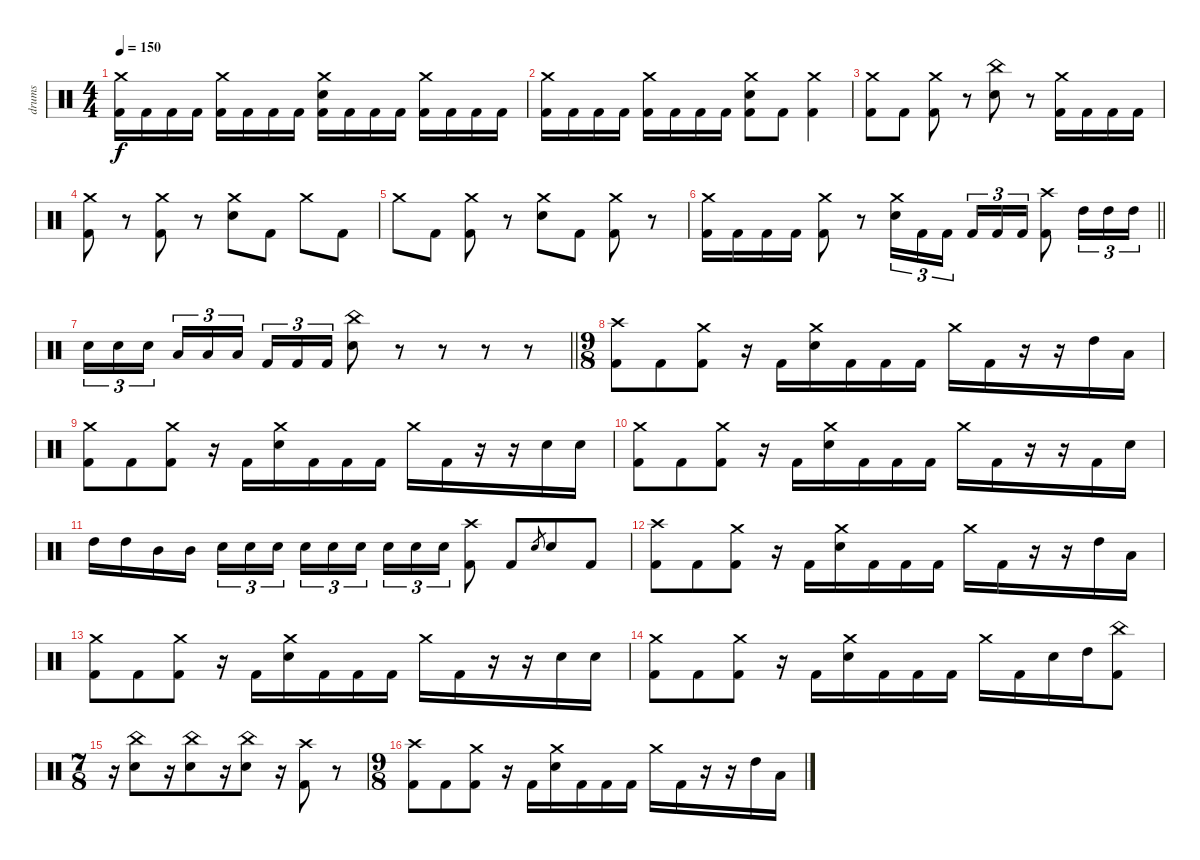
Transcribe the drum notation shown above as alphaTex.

\track ("drums" "drums") {instrument percussion}
\staff {score}
\articulation defaults
\ts (4 4)
\tempo 150
\clef neutral
\ks c
("Crash medium (hit)" "Kick (hit) 2").16{dy f} "Kick (hit) 2".16 "Kick (hit) 2".16 "Kick (hit) 2".16 ("Crash medium (hit)" "Kick (hit) 2").16 "Kick (hit) 2".16 "Kick (hit) 2".16 "Kick (hit) 2".16 ("Crash medium (hit)" "Electric Snare (hit)" "Kick (hit) 2").16 "Kick (hit) 2".16 "Kick (hit) 2".16 "Kick (hit) 2".16 ("Crash medium (hit)" "Kick (hit) 2").16 "Kick (hit) 2".16 "Kick (hit) 2".16 "Kick (hit) 2".16 |
("Crash medium (hit)" "Kick (hit) 2").16 "Kick (hit) 2".16 "Kick (hit) 2".16 "Kick (hit) 2".16 ("Crash medium (hit)" "Kick (hit) 2").16 "Kick (hit) 2".16 "Kick (hit) 2".16 "Kick (hit) 2".16 ("Crash medium (hit)" "Electric Snare (hit)" "Kick (hit) 2").8 "Kick (hit) 2".8 ("Crash medium (hit)" "Kick (hit) 2").4 |
("Crash medium (hit)" "Kick (hit) 2").8 "Kick (hit) 2".8 ("Crash medium (hit)" "Kick (hit) 2").8 r.8 ("China (hit)" "Electric Snare (hit)").8 r.8 ("Crash medium (hit)" "Kick (hit) 2").16 "Kick (hit) 2".16 "Kick (hit) 2".16 "Kick (hit) 2".16 |
("Crash medium (hit)" "Kick (hit) 2").8 r.8 ("Crash medium (hit)" "Kick (hit) 2").8 r.8 ("Crash medium (hit)" "Electric Snare (hit)").8 "Kick (hit) 2".8 "Crash medium (hit)".8 "Kick (hit) 2".8 |
"Crash medium (hit)".8 "Kick (hit) 2".8 ("Crash medium (hit)" "Kick (hit) 2").8 r.8 ("Crash medium (hit)" "Electric Snare (hit)").8 "Kick (hit) 2".8 ("Crash medium (hit)" "Kick (hit) 2").8 r.8 |
\barLineRight lightlight
("Crash medium (hit)" "Kick (hit) 2").16 "Kick (hit) 2".16 "Kick (hit) 2".16 "Kick (hit) 2".16 ("Crash medium (hit)" "Kick (hit) 2").8 r.8 ("Crash medium (hit)" "Electric Snare (hit)").16{tu (3 2)} "Kick (hit) 2".16{tu (3 2)} "Kick (hit) 2".16{tu (3 2)} "Kick (hit) 2".16{tu (3 2)} "Kick (hit) 2".16{tu (3 2)} "Kick (hit) 2".16{tu (3 2)} ("Crash high (hit)" "Kick (hit) 2").8 "High Tom (hit)".16{tu (3 2)} "High Tom (hit)".16{tu (3 2)} "High Tom (hit)".16{tu (3 2)} |
\barLineRight lightlight "Electric Snare (hit)".16{tu (3 2)} "Electric Snare (hit)".16{tu (3 2)} "Electric Snare (hit)".16{tu (3 2)} "Low Tom (hit)".16{tu (3 2)} "Low Tom (hit)".16{tu (3 2)} "Low Tom (hit)".16{tu (3 2)} "Kick (hit) 2".16{tu (3 2)} "Kick (hit) 2".16{tu (3 2)} "Kick (hit) 2".16{tu (3 2)}
("China (hit)" "Electric Snare (hit)").8 r.8 r.8 r.8 r.8 |
\ts (9 8)
\section ("" "")
("Crash high (hit)" "Kick (hit) 2").8 "Kick (hit) 2".8 ("Crash medium (hit)" "Kick (hit) 2").8 r.16 "Kick (hit) 2".16 ("Crash medium (hit)" "Electric Snare (hit)").16 "Kick (hit) 2".16 "Kick (hit) 2".16 "Kick (hit) 2".16 "Crash medium (hit)".16 "Kick (hit) 2".16 r.16 r.16 "High Tom (hit)".16 "Low Tom (hit)".16 |
("Crash medium (hit)" "Kick (hit) 2").8 "Kick (hit) 2".8 ("Crash medium (hit)" "Kick (hit) 2").8 r.16 "Kick (hit) 2".16 ("Crash medium (hit)" "Electric Snare (hit)").16 "Kick (hit) 2".16 "Kick (hit) 2".16 "Kick (hit) 2".16 "Crash medium (hit)".16 "Kick (hit) 2".16 r.16 r.16 "Electric Snare (hit)".16 "Electric Snare (hit)".16 |
("Crash medium (hit)" "Kick (hit) 2").8 "Kick (hit) 2".8 ("Crash medium (hit)" "Kick (hit) 2").8 r.16 "Kick (hit) 2".16 ("Crash medium (hit)" "Electric Snare (hit)").16 "Kick (hit) 2".16 "Kick (hit) 2".16 "Kick (hit) 2".16 "Crash medium (hit)".16 "Kick (hit) 2".16 r.16 r.16 "Kick (hit) 2".16 "Electric Snare (hit)".16 |
"High Tom (hit)".16 "High Tom (hit)".16 "Mid Tom (hit)".16 "Mid Tom (hit)".16 "Electric Snare (hit)".16{tu (3 2)} "Electric Snare (hit)".16{tu (3 2)} "Electric Snare (hit)".16{tu (3 2)} "Electric Snare (hit)".16{tu (3 2)} "Electric Snare (hit)".16{tu (3 2)} "Electric Snare (hit)".16{tu (3 2)} "Electric Snare (hit)".16{tu (3 2)} "Electric Snare (hit)".16{tu (3 2)} "Electric Snare (hit)".16{tu (3 2)} ("Crash high (hit)" "Kick (hit) 2").8 "Kick (hit) 2".8 "Electric Snare (hit)".8{gr} "Electric Snare (hit)".8 "Kick (hit) 2".8 |
("Crash high (hit)" "Kick (hit) 2").8 "Kick (hit) 2".8 ("Crash medium (hit)" "Kick (hit) 2").8 r.16 "Kick (hit) 2".16 ("Crash medium (hit)" "Electric Snare (hit)").16 "Kick (hit) 2".16 "Kick (hit) 2".16 "Kick (hit) 2".16 "Crash medium (hit)".16 "Kick (hit) 2".16 r.16 r.16 "High Tom (hit)".16 "Low Tom (hit)".16 |
("Crash medium (hit)" "Kick (hit) 2").8 "Kick (hit) 2".8 ("Crash medium (hit)" "Kick (hit) 2").8 r.16 "Kick (hit) 2".16 ("Crash medium (hit)" "Electric Snare (hit)").16 "Kick (hit) 2".16 "Kick (hit) 2".16 "Kick (hit) 2".16 "Crash medium (hit)".16 "Kick (hit) 2".16 r.16 r.16 "Electric Snare (hit)".16 "Electric Snare (hit)".16 |
("Crash medium (hit)" "Kick (hit) 2").8 "Kick (hit) 2".8 ("Crash medium (hit)" "Kick (hit) 2").8 r.16 "Kick (hit) 2".16 ("Crash medium (hit)" "Electric Snare (hit)").16 "Kick (hit) 2".16 "Kick (hit) 2".16 "Kick (hit) 2".16 "Crash medium (hit)".16 "Kick (hit) 2".16 "Electric Snare (hit)".16 "High Tom (hit)".16 ("China (hit)" "Kick (hit) 2").8 |
\ts (7 8)
r.16 ("China (hit)" "Electric Snare (hit)").8 r.16 ("China (hit)" "Electric Snare (hit)").8 r.16 ("China (hit)" "Electric Snare (hit)").8 r.16 ("Crash high (hit)" "Kick (hit) 2").8 r.8 |
\ts (9 8)
("Crash high (hit)" "Kick (hit) 2").8 "Kick (hit) 2".8 ("Crash medium (hit)" "Kick (hit) 2").8 r.16 "Kick (hit) 2".16 ("Crash medium (hit)" "Electric Snare (hit)").16 "Kick (hit) 2".16 "Kick (hit) 2".16 "Kick (hit) 2".16 "Crash medium (hit)".16 "Kick (hit) 2".16 r.16 r.16 "High Tom (hit)".16 "Low Tom (hit)".16
